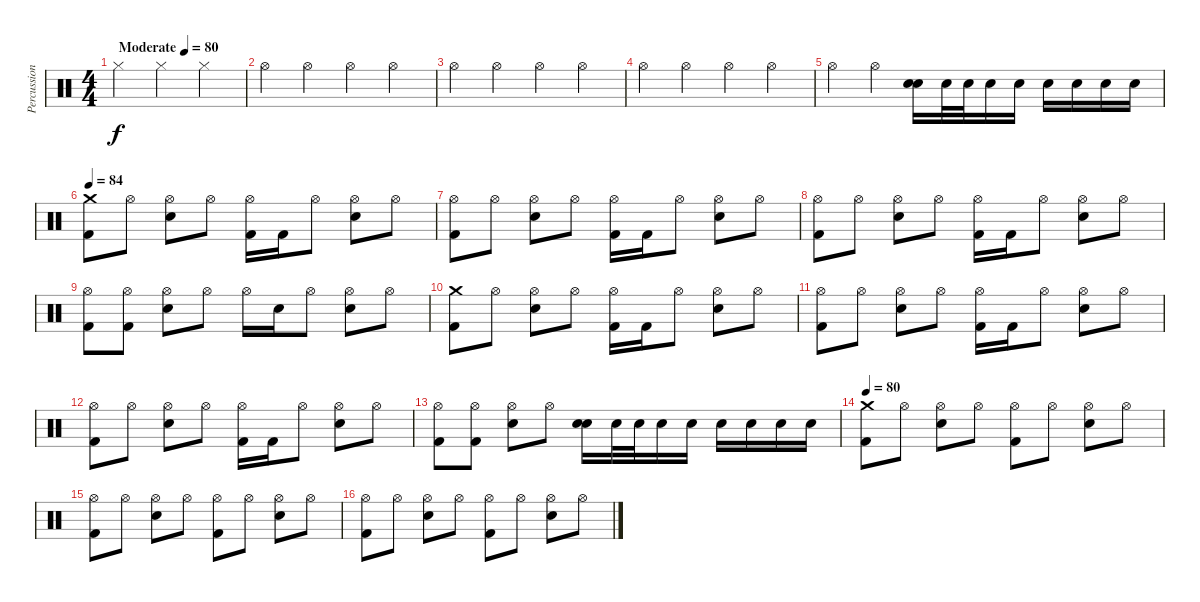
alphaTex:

\track ("Percussioni" "Percussion") {instrument percussion}
\staff {score}
\articulation defaults
\ts (4 4)
\tempo (80 "Moderate")
\clef neutral
\ks c "Hi-Hat (closed)".4{dy f} "Hi-Hat (closed)".4 "Hi-Hat (closed)".4
|
"Hi-Hat (open)".4 "Hi-Hat (open)".4 "Hi-Hat (open)".4 "Hi-Hat (open)".4 |
"Hi-Hat (open)".4 "Hi-Hat (open)".4 "Hi-Hat (open)".4 "Hi-Hat (open)".4 |
"Hi-Hat (open)".4 "Hi-Hat (open)".4 "Hi-Hat (open)".4 "Hi-Hat (open)".4 |
"Hi-Hat (open)".4 "Hi-Hat (open)".4 ("Electric Snare (hit)" "Electric Snare (hit)").16 "Electric Snare (hit)".32 "Electric Snare (hit)".32 "Electric Snare (hit)".16 "Electric Snare (hit)".16 "Electric Snare (hit)".16 "Electric Snare (hit)".16 "Electric Snare (hit)".16 "Electric Snare (hit)".16 |
\tempo 84
("Crash medium (hit)" "Kick (hit) 2").8 "Hi-Hat (open)".8 ("Hi-Hat (open)" "Electric Snare (hit)").8 "Hi-Hat (open)".8 ("Hi-Hat (open)" "Kick (hit) 2").16 "Kick (hit) 2".16 "Hi-Hat (open)".8 ("Hi-Hat (open)" "Electric Snare (hit)").8 "Hi-Hat (open)".8 |
("Hi-Hat (open)" "Kick (hit) 2").8 "Hi-Hat (open)".8 ("Hi-Hat (open)" "Electric Snare (hit)").8 "Hi-Hat (open)".8 ("Hi-Hat (open)" "Kick (hit) 2").16 "Kick (hit) 2".16 "Hi-Hat (open)".8 ("Hi-Hat (open)" "Electric Snare (hit)").8 "Hi-Hat (open)".8 |
("Hi-Hat (open)" "Kick (hit) 2").8 "Hi-Hat (open)".8 ("Hi-Hat (open)" "Electric Snare (hit)").8 "Hi-Hat (open)".8 ("Hi-Hat (open)" "Kick (hit) 2").16 "Kick (hit) 2".16 "Hi-Hat (open)".8 ("Hi-Hat (open)" "Electric Snare (hit)").8 "Hi-Hat (open)".8 |
("Hi-Hat (open)" "Kick (hit) 2").8 ("Hi-Hat (open)" "Kick (hit) 2").8 ("Hi-Hat (open)" "Electric Snare (hit)").8 "Hi-Hat (open)".8 "Hi-Hat (open)".16 "Electric Snare (hit)".16 "Hi-Hat (open)".8 ("Hi-Hat (open)" "Electric Snare (hit)").8 "Hi-Hat (open)".8 |
("Crash medium (hit)" "Kick (hit) 2").8 "Hi-Hat (open)".8 ("Hi-Hat (open)" "Electric Snare (hit)").8 "Hi-Hat (open)".8 ("Hi-Hat (open)" "Kick (hit) 2").16 "Kick (hit) 2".16 "Hi-Hat (open)".8 ("Hi-Hat (open)" "Electric Snare (hit)").8 "Hi-Hat (open)".8 |
("Hi-Hat (open)" "Kick (hit) 2").8 "Hi-Hat (open)".8 ("Hi-Hat (open)" "Electric Snare (hit)").8 "Hi-Hat (open)".8 ("Hi-Hat (open)" "Kick (hit) 2").16 "Kick (hit) 2".16 "Hi-Hat (open)".8 ("Hi-Hat (open)" "Electric Snare (hit)").8 "Hi-Hat (open)".8 |
("Hi-Hat (open)" "Kick (hit) 2").8 "Hi-Hat (open)".8 ("Hi-Hat (open)" "Electric Snare (hit)").8 "Hi-Hat (open)".8 ("Hi-Hat (open)" "Kick (hit) 2").16 "Kick (hit) 2".16 "Hi-Hat (open)".8 ("Hi-Hat (open)" "Electric Snare (hit)").8 "Hi-Hat (open)".8 |
("Hi-Hat (open)" "Kick (hit) 2").8 ("Hi-Hat (open)" "Kick (hit) 2").8 ("Hi-Hat (open)" "Electric Snare (hit)").8 "Hi-Hat (open)".8 ("Electric Snare (hit)" "Electric Snare (hit)").16 "Electric Snare (hit)".32 "Electric Snare (hit)".32 "Electric Snare (hit)".16 "Electric Snare (hit)".16 "Electric Snare (hit)".16 "Electric Snare (hit)".16 "Electric Snare (hit)".16 "Electric Snare (hit)".16 |
\tempo 80
("Crash medium (hit)" "Kick (hit) 2").8 "Hi-Hat (open)".8 ("Hi-Hat (open)" "Electric Snare (hit)").8 "Hi-Hat (open)".8 ("Hi-Hat (open)" "Kick (hit) 2").8 "Hi-Hat (open)".8 ("Hi-Hat (open)" "Electric Snare (hit)").8 "Hi-Hat (open)".8 |
("Hi-Hat (open)" "Kick (hit) 2").8 "Hi-Hat (open)".8 ("Hi-Hat (open)" "Electric Snare (hit)").8 "Hi-Hat (open)".8 ("Hi-Hat (open)" "Kick (hit) 2").8 "Hi-Hat (open)".8 ("Hi-Hat (open)" "Electric Snare (hit)").8 "Hi-Hat (open)".8 |
("Hi-Hat (open)" "Kick (hit) 2").8 "Hi-Hat (open)".8 ("Hi-Hat (open)" "Electric Snare (hit)").8 "Hi-Hat (open)".8 ("Hi-Hat (open)" "Kick (hit) 2").8 "Hi-Hat (open)".8 ("Hi-Hat (open)" "Electric Snare (hit)").8 "Hi-Hat (open)".8
